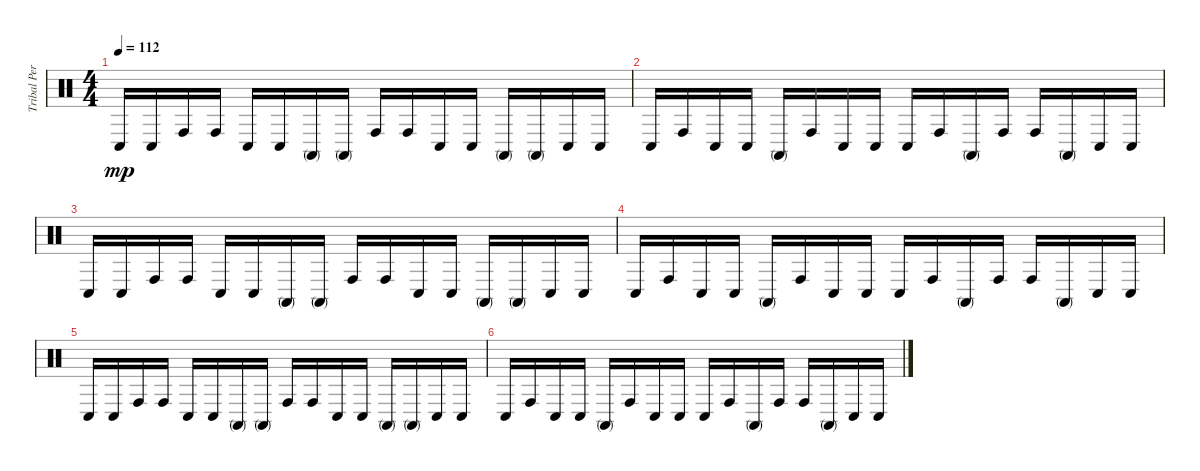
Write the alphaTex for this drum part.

\track ("Tribal Percussion" "Tribal Per") {instrument percussion}
\staff {score}
\articulation defaults
\ts (4 4)
\tempo 112
\clef neutral
\ks c "Conga low (hit)".16{dy mp} "Conga low (hit)".16 "Conga high (hit)".16 "Conga high (hit)".16 "Conga low (hit)".16 "Conga low (hit)".16 "Conga high (mute)".16 "Conga high (mute)".16 "Conga high (hit)".16 "Conga high (hit)".16 "Conga low (hit)".16 "Conga low (hit)".16 "Conga high (mute)".16 "Conga high (mute)".16 "Conga low (hit)".16 "Conga low (hit)".16
|
"Conga low (hit)".16 "Conga high (hit)".16 "Conga low (hit)".16 "Conga low (hit)".16 "Conga high (mute)".16 "Conga high (hit)".16 "Conga low (hit)".16 "Conga low (hit)".16 "Conga low (hit)".16 "Conga high (hit)".16 "Conga high (mute)".16 "Conga high (hit)".16 "Conga high (hit)".16 "Conga high (mute)".16 "Conga low (hit)".16 "Conga low (hit)".16 |
"Conga low (hit)".16 "Conga low (hit)".16 "Conga high (hit)".16 "Conga high (hit)".16 "Conga low (hit)".16 "Conga low (hit)".16 "Conga high (mute)".16 "Conga high (mute)".16 "Conga high (hit)".16 "Conga high (hit)".16 "Conga low (hit)".16 "Conga low (hit)".16 "Conga high (mute)".16 "Conga high (mute)".16 "Conga low (hit)".16 "Conga low (hit)".16 |
"Conga low (hit)".16 "Conga high (hit)".16 "Conga low (hit)".16 "Conga low (hit)".16 "Conga high (mute)".16 "Conga high (hit)".16 "Conga low (hit)".16 "Conga low (hit)".16 "Conga low (hit)".16 "Conga high (hit)".16 "Conga high (mute)".16 "Conga high (hit)".16 "Conga high (hit)".16 "Conga high (mute)".16 "Conga low (hit)".16 "Conga low (hit)".16 |
"Conga low (hit)".16 "Conga low (hit)".16 "Conga high (hit)".16 "Conga high (hit)".16 "Conga low (hit)".16 "Conga low (hit)".16 "Conga high (mute)".16 "Conga high (mute)".16 "Conga high (hit)".16 "Conga high (hit)".16 "Conga low (hit)".16 "Conga low (hit)".16 "Conga high (mute)".16 "Conga high (mute)".16 "Conga low (hit)".16 "Conga low (hit)".16 |
"Conga low (hit)".16 "Conga high (hit)".16 "Conga low (hit)".16 "Conga low (hit)".16 "Conga high (mute)".16 "Conga high (hit)".16 "Conga low (hit)".16 "Conga low (hit)".16 "Conga low (hit)".16 "Conga high (hit)".16 "Conga high (mute)".16 "Conga high (hit)".16 "Conga high (hit)".16 "Conga high (mute)".16 "Conga low (hit)".16 "Conga low (hit)".16
